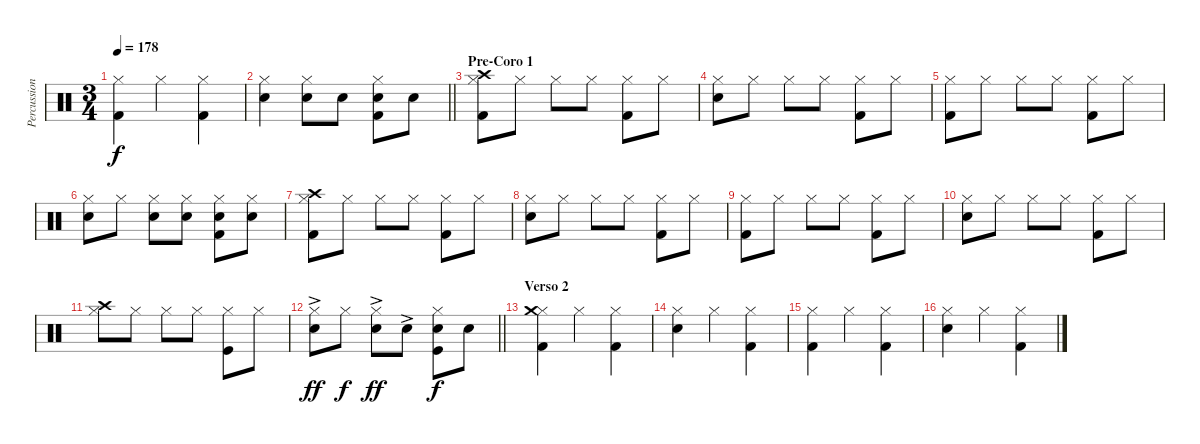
\track ("Percussion" "Percussion") {instrument percussion}
\staff {score}
\articulation defaults
\ts (3 4)
\tempo 178
\clef neutral
\ks c
("Hi-Hat (closed)" "Kick (hit) 2").4{dy f} "Hi-Hat (closed)".4 ("Hi-Hat (closed)" "Kick (hit) 2").4 |
\barLineRight lightlight
("Hi-Hat (closed)" "Snare (hit) 2").4 ("Hi-Hat (closed)" "Snare (hit) 2").8 "Snare (hit) 2".8 ("Hi-Hat (closed)" "Snare (hit) 2" "Kick (hit) 2").8 "Snare (hit) 2".8 |
\section ("" "Pre-Coro 1")
("Hi-Hat (closed)" "Crash high (hit)" "Kick (hit) 2").8 "Hi-Hat (closed)".8 "Hi-Hat (closed)".8 "Hi-Hat (closed)".8 ("Hi-Hat (closed)" "Kick (hit) 2").8 "Hi-Hat (closed)".8 |
("Hi-Hat (closed)" "Snare (hit) 2").8 "Hi-Hat (closed)".8 "Hi-Hat (closed)".8 "Hi-Hat (closed)".8 ("Hi-Hat (closed)" "Kick (hit) 2").8 "Hi-Hat (closed)".8 |
("Hi-Hat (closed)" "Kick (hit) 2").8 "Hi-Hat (closed)".8 "Hi-Hat (closed)".8 "Hi-Hat (closed)".8 ("Hi-Hat (closed)" "Kick (hit) 2").8 "Hi-Hat (closed)".8 |
("Hi-Hat (closed)" "Snare (hit) 2").8 "Hi-Hat (closed)".8 ("Hi-Hat (closed)" "Snare (hit) 2").8 ("Hi-Hat (closed)" "Snare (hit) 2").8 ("Hi-Hat (closed)" "Snare (hit) 2" "Kick (hit) 2").8 ("Hi-Hat (closed)" "Snare (hit) 2").8 |
("Hi-Hat (closed)" "Crash high (hit)" "Kick (hit) 2").8 "Hi-Hat (closed)".8 "Hi-Hat (closed)".8 "Hi-Hat (closed)".8 ("Hi-Hat (closed)" "Kick (hit) 2").8 "Hi-Hat (closed)".8 |
("Hi-Hat (closed)" "Snare (hit) 2").8 "Hi-Hat (closed)".8 "Hi-Hat (closed)".8 "Hi-Hat (closed)".8 ("Hi-Hat (closed)" "Kick (hit) 2").8 "Hi-Hat (closed)".8 |
("Hi-Hat (closed)" "Kick (hit) 2").8 "Hi-Hat (closed)".8 "Hi-Hat (closed)".8 "Hi-Hat (closed)".8 ("Hi-Hat (closed)" "Kick (hit) 2").8 "Hi-Hat (closed)".8 |
("Hi-Hat (closed)" "Snare (hit) 2").8 "Hi-Hat (closed)".8 "Hi-Hat (closed)".8 "Hi-Hat (closed)".8 ("Hi-Hat (closed)" "Kick (hit) 2").8 "Hi-Hat (closed)".8 |
("Hi-Hat (closed)" "Crash high (hit)").8 "Hi-Hat (closed)".8 "Hi-Hat (closed)".8 "Hi-Hat (closed)".8 ("Hi-Hat (closed)" "Kick (hit)").8 "Hi-Hat (closed)".8 |
\barLineRight lightlight
("Hi-Hat (closed)" "Snare (hit) 2"{ac}).8{dy ff} "Hi-Hat (closed)".8{dy f} ("Hi-Hat (closed)" "Snare (hit) 2"{ac}).8{dy ff} "Snare (hit) 2"{ac}.8 ("Hi-Hat (closed)" "Snare (hit) 2" "Kick (hit)").8{dy f} "Snare (hit) 2".8 |
\section ("" "Verso 2")
("Hi-Hat (closed)" "Crash medium (hit)" "Kick (hit) 2").4 "Hi-Hat (closed)".4 ("Hi-Hat (closed)" "Kick (hit) 2").4 |
("Hi-Hat (closed)" "Snare (hit) 2").4 "Hi-Hat (closed)".4 ("Hi-Hat (closed)" "Kick (hit) 2").4 |
("Hi-Hat (closed)" "Kick (hit) 2").4 "Hi-Hat (closed)".4 ("Hi-Hat (closed)" "Kick (hit) 2").4 |
("Hi-Hat (closed)" "Snare (hit) 2").4 "Hi-Hat (closed)".4 ("Hi-Hat (closed)" "Kick (hit) 2").4
